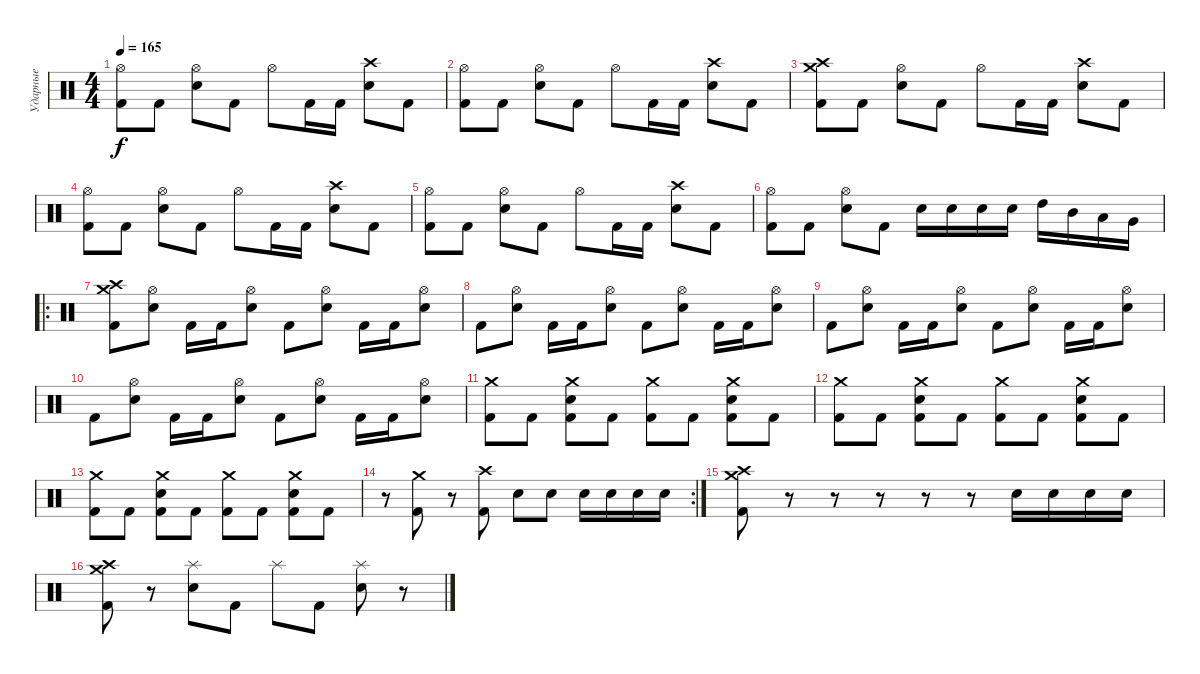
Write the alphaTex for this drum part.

\track ("Ударные" "Ударные") {instrument percussion}
\staff {score}
\articulation defaults
\ts (4 4)
\tempo 165
\clef neutral
\ks c
("Hi-Hat (open)" "Kick (hit) 2").8{dy f} "Kick (hit) 2".8 ("Hi-Hat (open)" "Electric Snare (hit)").8 "Kick (hit) 2".8 "Hi-Hat (open)".8 "Kick (hit) 2".16 "Kick (hit) 2".16 ("Crash high (hit)" "Electric Snare (hit)").8 "Kick (hit) 2".8 |
("Hi-Hat (open)" "Kick (hit) 2").8 "Kick (hit) 2".8 ("Hi-Hat (open)" "Electric Snare (hit)").8 "Kick (hit) 2".8 "Hi-Hat (open)".8 "Kick (hit) 2".16 "Kick (hit) 2".16 ("Crash high (hit)" "Electric Snare (hit)").8 "Kick (hit) 2".8 |
("Crash medium (hit)" "Crash high (hit)" "Kick (hit) 2").8 "Kick (hit) 2".8 ("Hi-Hat (open)" "Electric Snare (hit)").8 "Kick (hit) 2".8 "Hi-Hat (open)".8 "Kick (hit) 2".16 "Kick (hit) 2".16 ("Crash high (hit)" "Electric Snare (hit)").8 "Kick (hit) 2".8 |
("Hi-Hat (open)" "Kick (hit) 2").8 "Kick (hit) 2".8 ("Hi-Hat (open)" "Electric Snare (hit)").8 "Kick (hit) 2".8 "Hi-Hat (open)".8 "Kick (hit) 2".16 "Kick (hit) 2".16 ("Crash high (hit)" "Electric Snare (hit)").8 "Kick (hit) 2".8 |
("Hi-Hat (open)" "Kick (hit) 2").8 "Kick (hit) 2".8 ("Hi-Hat (open)" "Electric Snare (hit)").8 "Kick (hit) 2".8 "Hi-Hat (open)".8 "Kick (hit) 2".16 "Kick (hit) 2".16 ("Crash high (hit)" "Electric Snare (hit)").8 "Kick (hit) 2".8 |
("Hi-Hat (open)" "Kick (hit) 2").8 "Kick (hit) 2".8 ("Hi-Hat (open)" "Electric Snare (hit)").8 "Kick (hit) 2".8 "Electric Snare (hit)".16 "Electric Snare (hit)".16 "Electric Snare (hit)".16 "Electric Snare (hit)".16 "High Tom (hit)".16 "Mid Tom (hit)".16 "Low Tom (hit)".16 "Very Low Tom (hit)".16 |
\ro
("Crash high (hit)" "Crash medium (hit)" "Kick (hit) 2").8 ("Hi-Hat (open)" "Electric Snare (hit)").8 "Kick (hit) 2".16 "Kick (hit) 2".16 ("Hi-Hat (open)" "Electric Snare (hit)").8 "Kick (hit) 2".8 ("Hi-Hat (open)" "Electric Snare (hit)").8 "Kick (hit) 2".16 "Kick (hit) 2".16 ("Hi-Hat (open)" "Electric Snare (hit)").8 |
"Kick (hit) 2".8 ("Hi-Hat (open)" "Electric Snare (hit)").8 "Kick (hit) 2".16 "Kick (hit) 2".16 ("Hi-Hat (open)" "Electric Snare (hit)").8 "Kick (hit) 2".8 ("Hi-Hat (open)" "Electric Snare (hit)").8 "Kick (hit) 2".16 "Kick (hit) 2".16 ("Hi-Hat (open)" "Electric Snare (hit)").8 |
"Kick (hit) 2".8 ("Hi-Hat (open)" "Electric Snare (hit)").8 "Kick (hit) 2".16 "Kick (hit) 2".16 ("Hi-Hat (open)" "Electric Snare (hit)").8 "Kick (hit) 2".8 ("Hi-Hat (open)" "Electric Snare (hit)").8 "Kick (hit) 2".16 "Kick (hit) 2".16 ("Hi-Hat (open)" "Electric Snare (hit)").8 |
"Kick (hit) 2".8 ("Hi-Hat (open)" "Electric Snare (hit)").8 "Kick (hit) 2".16 "Kick (hit) 2".16 ("Hi-Hat (open)" "Electric Snare (hit)").8 "Kick (hit) 2".8 ("Hi-Hat (open)" "Electric Snare (hit)").8 "Kick (hit) 2".16 "Kick (hit) 2".16 ("Hi-Hat (open)" "Electric Snare (hit)").8 |
("Crash medium (hit)" "Kick (hit) 2").8 "Kick (hit) 2".8 ("Crash medium (hit)" "Electric Snare (hit)" "Kick (hit) 2").8 "Kick (hit) 2".8 ("Crash medium (hit)" "Kick (hit) 2").8 "Kick (hit) 2".8 ("Crash medium (hit)" "Electric Snare (hit)" "Kick (hit) 2").8 "Kick (hit) 2".8 |
("Crash medium (hit)" "Kick (hit) 2").8 "Kick (hit) 2".8 ("Crash medium (hit)" "Electric Snare (hit)" "Kick (hit) 2").8 "Kick (hit) 2".8 ("Crash medium (hit)" "Kick (hit) 2").8 "Kick (hit) 2".8 ("Crash medium (hit)" "Electric Snare (hit)" "Kick (hit) 2").8 "Kick (hit) 2".8 |
("Crash medium (hit)" "Kick (hit) 2").8 "Kick (hit) 2".8 ("Crash medium (hit)" "Electric Snare (hit)" "Kick (hit) 2").8 "Kick (hit) 2".8 ("Crash medium (hit)" "Kick (hit) 2").8 "Kick (hit) 2".8 ("Crash medium (hit)" "Electric Snare (hit)" "Kick (hit) 2").8 "Kick (hit) 2".8 |
\rc 2
r.8 ("Crash medium (hit)" "Kick (hit) 2").8 r.8 ("Crash high (hit)" "Kick (hit) 2").8 "Electric Snare (hit)".8 "Electric Snare (hit)".8 "Electric Snare (hit)".16 "Electric Snare (hit)".16 "Electric Snare (hit)".16 "Electric Snare (hit)".16 |
("Crash medium (hit)" "Crash high (hit)" "Kick (hit) 2").8 r.8 r.8 r.8 r.8 r.8 "Electric Snare (hit)".16 "Electric Snare (hit)".16 "Electric Snare (hit)".16 "Electric Snare (hit)".16 |
("Crash medium (hit)" "Crash high (hit)" "Kick (hit) 2").8 r.8 ("Splash (hit)" "Electric Snare (hit)").8 "Kick (hit) 2".8 "Splash (hit)".8 "Kick (hit) 2".8 ("Splash (hit)" "Electric Snare (hit)").8 r.8
